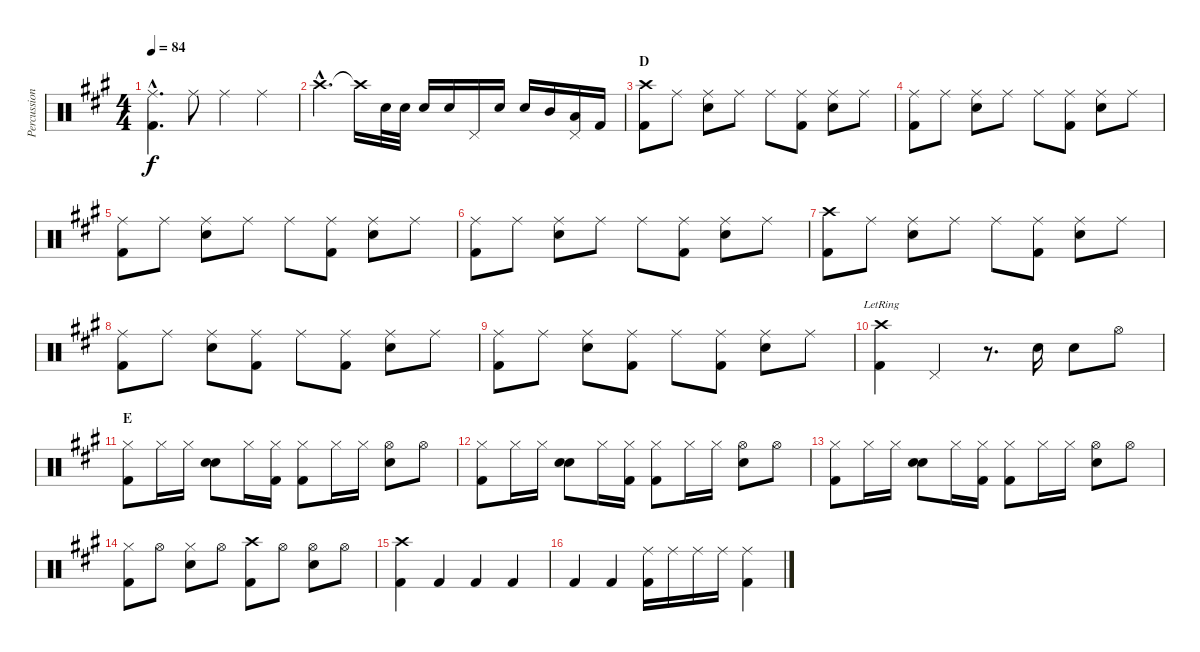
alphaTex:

\track ("Percussion - Chad S" "Percussion") {instrument percussion}
\staff {score}
\articulation defaults
\ts (4 4)
\tempo 84
\clef neutral
\ks a
("Ride (middle)"{hac} "Kick (hit) 2"{hac}).4{d dy f} "Ride (middle)".8 "Ride (middle)".4 "Ride (middle)".4 |
"Crash high (hit)"{hac}.4{d} "Crash high (hit)"{t}.16 "Snare (hit) 2".32{volume 13} "Snare (hit) 2".32 "Snare (hit) 2".16 "Snare (hit) 2".16 "Pedal Hi-Hat (hit)".16 "Snare (hit) 2".16 "Snare (hit) 2".16 "Mid Tom (hit)".16 ("Low Tom (hit)" "Pedal Hi-Hat (hit)").16 "Kick (hit) 2".16 |
\section ("" "D")
("Crash high (hit)" "Kick (hit) 2").8 "Ride (middle)".8 ("Ride (middle)" "Snare (hit) 2").8 "Ride (middle)".8 "Ride (middle)".8 ("Ride (middle)" "Kick (hit) 2").8 ("Ride (middle)" "Snare (hit) 2").8 "Ride (middle)".8 |
("Ride (middle)" "Kick (hit) 2").8 "Ride (middle)".8 ("Ride (middle)" "Snare (hit) 2").8 "Ride (middle)".8 "Ride (middle)".8 ("Ride (middle)" "Kick (hit) 2").8 ("Ride (middle)" "Snare (hit) 2").8 "Ride (middle)".8 |
("Ride (middle)" "Kick (hit) 2").8 "Ride (middle)".8 ("Ride (middle)" "Snare (hit) 2").8 "Ride (middle)".8 "Ride (middle)".8 ("Ride (middle)" "Kick (hit) 2").8 ("Ride (middle)" "Snare (hit) 2").8 "Ride (middle)".8 |
("Ride (middle)" "Kick (hit) 2").8 "Ride (middle)".8 ("Ride (middle)" "Snare (hit) 2").8 "Ride (middle)".8 "Ride (middle)".8 ("Ride (middle)" "Kick (hit) 2").8 ("Ride (middle)" "Snare (hit) 2").8 "Ride (middle)".8 |
("Crash high (hit)" "Kick (hit) 2").8 "Ride (middle)".8 ("Ride (middle)" "Snare (hit) 2").8 "Ride (middle)".8 "Ride (middle)".8 ("Ride (middle)" "Kick (hit) 2").8 ("Ride (middle)" "Snare (hit) 2").8 "Ride (middle)".8 |
("Ride (middle)" "Kick (hit) 2").8 "Ride (middle)".8 ("Ride (middle)" "Snare (hit) 2").8 ("Ride (middle)" "Kick (hit) 2").8 "Ride (middle)".8 ("Ride (middle)" "Kick (hit) 2").8 ("Ride (middle)" "Snare (hit) 2").8 "Ride (middle)".8 |
("Ride (middle)" "Kick (hit) 2").8 "Ride (middle)".8 ("Ride (middle)" "Snare (hit) 2").8 ("Ride (middle)" "Kick (hit) 2").8 "Ride (middle)".8 ("Ride (middle)" "Kick (hit) 2").8 ("Ride (middle)" "Snare (hit) 2").8 "Ride (middle)".8 |
("Crash high (hit)"{lr} "Kick (hit) 2").4 "Pedal Hi-Hat (hit)".4 r.8{d} "Snare (hit) 2".16 "Snare (hit) 2".8 "Hi-Hat (open)".8 |
\section ("" "E")
("Hi-Hat (closed)" "Kick (hit) 2").8 "Hi-Hat (closed)".16 "Hi-Hat (closed)".16 ("Snare (hit) 2" "Snare (hit) 2").8 "Hi-Hat (closed)".16 ("Hi-Hat (closed)" "Kick (hit) 2").16 ("Hi-Hat (closed)" "Kick (hit) 2").8 "Hi-Hat (closed)".16 "Hi-Hat (closed)".16 ("Hi-Hat (open)" "Snare (hit) 2").8 "Hi-Hat (open)".8 |
("Hi-Hat (closed)" "Kick (hit) 2").8 "Hi-Hat (closed)".16 "Hi-Hat (closed)".16 ("Snare (hit) 2" "Snare (hit) 2").8 "Hi-Hat (closed)".16 ("Hi-Hat (closed)" "Kick (hit) 2").16 ("Hi-Hat (closed)" "Kick (hit) 2").8 "Hi-Hat (closed)".16 "Hi-Hat (closed)".16 ("Hi-Hat (open)" "Snare (hit) 2").8 "Hi-Hat (open)".8 |
("Hi-Hat (closed)" "Kick (hit) 2").8 "Hi-Hat (closed)".16 "Hi-Hat (closed)".16 ("Snare (hit) 2" "Snare (hit) 2").8 "Hi-Hat (closed)".16 ("Hi-Hat (closed)" "Kick (hit) 2").16 ("Hi-Hat (closed)" "Kick (hit) 2").8 "Hi-Hat (closed)".16 "Hi-Hat (closed)".16 ("Hi-Hat (open)" "Snare (hit) 2").8 "Hi-Hat (open)".8 |
("Hi-Hat (closed)" "Kick (hit) 2").8 "Hi-Hat (open)".8 ("Hi-Hat (closed)" "Snare (hit) 2").8 "Hi-Hat (open)".8 ("Crash high (hit)" "Kick (hit) 2").8 "Hi-Hat (open)".8 ("Hi-Hat (open)" "Snare (hit) 2").8 "Hi-Hat (open)".8 |
("Crash high (hit)" "Kick (hit) 2").4 "Kick (hit) 2".4 "Kick (hit) 2".4 "Kick (hit) 2".4 |
"Kick (hit) 2".4 "Kick (hit) 2".4 ("Ride (middle)" "Kick (hit) 2").16{volume 4} "Ride (middle)".16{volume 13} "Ride (middle)".16 "Ride (middle)".16 ("Ride (middle)" "Kick (hit) 2").4
